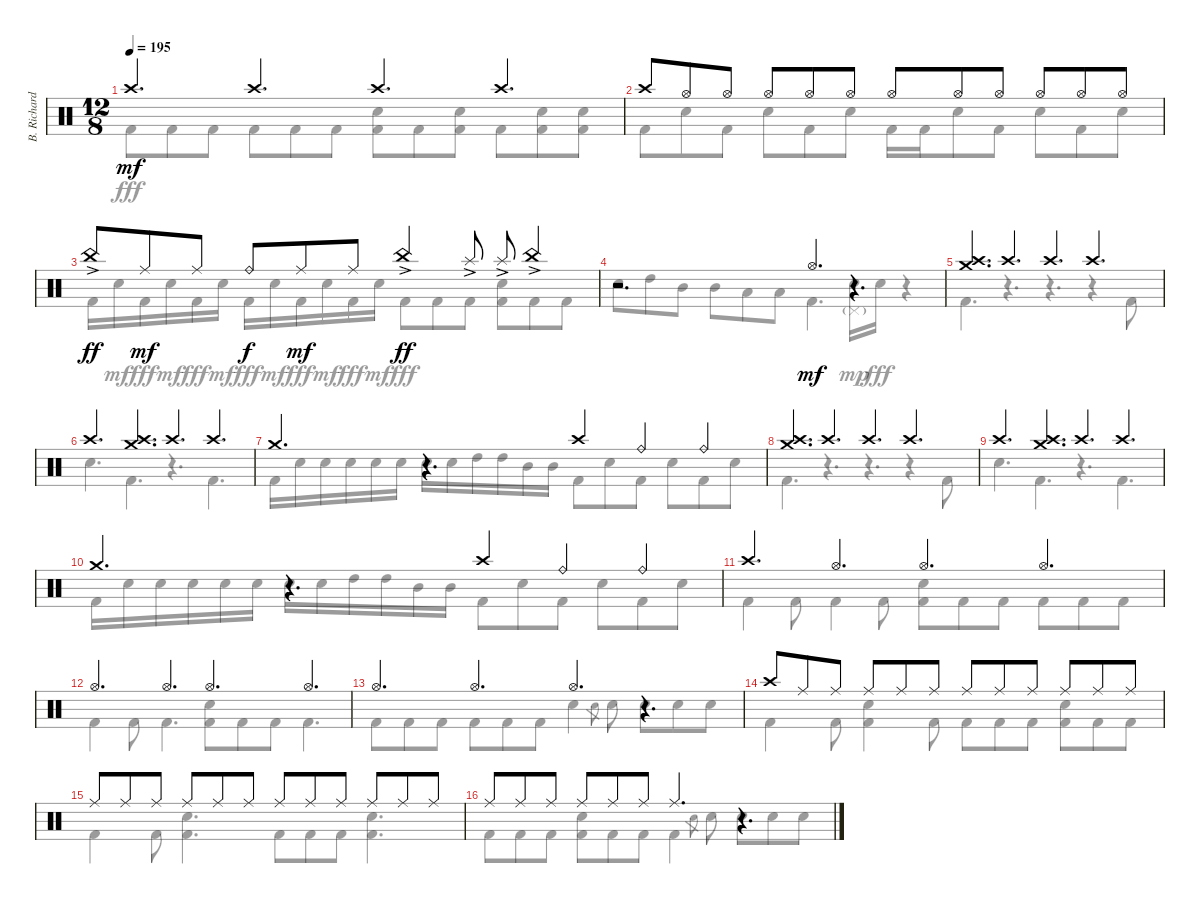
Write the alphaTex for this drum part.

\track ("B. Richardson Drums" "B. Richard") {instrument percussion}
\staff {score}
\articulation defaults
\voice
\ts (12 8)
\tempo 195
\clef neutral
\ks c "Crash high (hit)".4{d dy mf} "Crash high (hit)".4{d} "Crash high (hit)".4{d} "Crash high (hit)".4{d}
|
"Crash high (hit)".8 "Hi-Hat (open)".8 "Hi-Hat (open)".8 "Hi-Hat (open)".8 "Hi-Hat (open)".8 "Hi-Hat (open)".8 "Hi-Hat (open)".8 "Hi-Hat (open)".8 "Hi-Hat (open)".8 "Hi-Hat (open)".8 "Hi-Hat (open)".8 "Hi-Hat (open)".8 |
"China (hit)"{ac}.8{dy ff} "Ride (middle)".8{dy mf} "Ride (middle)".8 "Ride (bell)".8{dy f} "Ride (middle)".8{dy mf} "Ride (middle)".8 "China (hit)"{ac}.4{dy ff} "Splash (hit)"{ac}.8 "Splash (hit)"{ac}.8 "China (hit)"{ac}.4 |
r.2{d} "Hi-Hat (open)".4{d dy mf} r.4{d} |
("Crash high (hit)" "Crash medium (hit)").4{d} "Crash high (hit)".4{d} "Crash high (hit)".4{d} "Crash high (hit)".4{d} |
"Crash high (hit)".4{d} ("Crash high (hit)" "Crash medium (hit)").4{d} "Crash high (hit)".4{d} "Crash high (hit)".4{d} |
"Crash medium (hit)".4{d} r.4{d} "Crash high (hit)".4 "Ride (bell)".4 "Ride (bell)".4 |
("Crash high (hit)" "Crash medium (hit)").4{d} "Crash high (hit)".4{d} "Crash high (hit)".4{d} "Crash high (hit)".4{d} |
"Crash high (hit)".4{d} ("Crash high (hit)" "Crash medium (hit)").4{d} "Crash high (hit)".4{d} "Crash high (hit)".4{d} |
"Crash medium (hit)".4{d} r.4{d} "Crash high (hit)".4 "Ride (bell)".4 "Ride (bell)".4 |
"Crash high (hit)".4{d} "Hi-Hat (open)".4{d} "Hi-Hat (open)".4{d} "Hi-Hat (open)".4{d} |
"Hi-Hat (open)".4{d} "Hi-Hat (open)".4{d} "Hi-Hat (open)".4{d} "Hi-Hat (open)".4{d} |
"Hi-Hat (open)".4{d} "Hi-Hat (open)".4{d} "Hi-Hat (open)".4{d} r.4{d} |
"Crash high (hit)".8 "Ride (middle)".8 "Ride (middle)".8 "Ride (middle)".8 "Ride (middle)".8 "Ride (middle)".8 "Ride (middle)".8 "Ride (middle)".8 "Ride (middle)".8 "Ride (middle)".8 "Ride (middle)".8 "Ride (middle)".8 |
"Ride (middle)".8 "Ride (middle)".8 "Ride (middle)".8 "Ride (middle)".8 "Ride (middle)".8 "Ride (middle)".8 "Ride (middle)".8 "Ride (middle)".8 "Ride (middle)".8 "Ride (middle)".8 "Ride (middle)".8 "Ride (middle)".8 |
"Ride (middle)".8 "Ride (middle)".8 "Ride (middle)".8 "Ride (middle)".8 "Ride (middle)".8 "Ride (middle)".8 "Ride (middle)".4{d} r.4{d}
\voice
\clef neutral
\ottava regular
\simile none
\ks c "Kick (hit) 2".8{dy fff} "Kick (hit) 2".8 "Kick (hit) 2".8 "Kick (hit) 2".8 "Kick (hit) 2".8 "Kick (hit) 2".8
("Electric Snare (hit)" "Kick (hit) 2").8 "Kick (hit) 2".8 ("Electric Snare (hit)" "Kick (hit) 2").8 "Kick (hit) 2".8 ("Electric Snare (hit)" "Kick (hit) 2").8 ("Electric Snare (hit)" "Kick (hit) 2").8 |
"Kick (hit) 2".8 "Electric Snare (hit)".8 "Kick (hit) 2".8 "Electric Snare (hit)".8 "Kick (hit) 2".8 "Electric Snare (hit)".8 "Kick (hit) 2".16 "Kick (hit) 2".16 "Electric Snare (hit)".8 "Kick (hit) 2".8 "Electric Snare (hit)".8 "Kick (hit) 2".8 "Electric Snare (hit)".8 |
"Kick (hit) 2".16 "Electric Snare (hit)".16{dy mf} "Kick (hit) 2".16{dy fff} "Electric Snare (hit)".16{dy mf} "Kick (hit) 2".16{dy fff} "Electric Snare (hit)".16{dy mf} "Kick (hit) 2".16{dy fff} "Electric Snare (hit)".16{dy mf} "Kick (hit) 2".16{dy fff} "Electric Snare (hit)".16{dy mf} "Kick (hit) 2".16{dy fff} "Electric Snare (hit)".16{dy mf} "Kick (hit) 2".8{dy fff} "Kick (hit) 2".8 "Kick (hit) 2".8 ("Electric Snare (hit)" "Kick (hit) 2").8 "Kick (hit) 2".8 "Kick (hit) 2".8 |
"Electric Snare (hit)".8 "High Tom (hit)".8 "Mid Tom (hit)".8 "Mid Tom (hit)".8 "Low Tom (hit)".8 "Low Tom (hit)".8 "Kick (hit) 2".4{d} ("Electric Snare (hit)" "Pedal Hi-Hat (hit)"{g}).16{dy mp} "Electric Snare (hit)".16{dy fff} r.4 |
"Kick (hit) 2".4{d} r.4{d} r.4{d} r.4 "Kick (hit) 2".8 |
"Electric Snare (hit)".4{d} "Kick (hit) 2".4{d} r.4{d} "Kick (hit) 2".4{d} |
"Kick (hit) 2".16 "Electric Snare (hit)".16 "Electric Snare (hit)".16 "Electric Snare (hit)".16 "Electric Snare (hit)".16 "Electric Snare (hit)".16 "Electric Snare (hit)".16 "Electric Snare (hit)".16 "High Tom (hit)".16 "High Tom (hit)".16 "Mid Tom (hit)".16 "Mid Tom (hit)".16 "Kick (hit) 2".8 "Electric Snare (hit)".8 "Kick (hit) 2".8 "Electric Snare (hit)".8 "Kick (hit) 2".8 "Electric Snare (hit)".8 |
"Kick (hit) 2".4{d} r.4{d} r.4{d} r.4 "Kick (hit) 2".8 |
"Electric Snare (hit)".4{d} "Kick (hit) 2".4{d} r.4{d} "Kick (hit) 2".4{d} |
"Kick (hit) 2".16 "Electric Snare (hit)".16 "Electric Snare (hit)".16 "Electric Snare (hit)".16 "Electric Snare (hit)".16 "Electric Snare (hit)".16 "Electric Snare (hit)".16 "Electric Snare (hit)".16 "High Tom (hit)".16 "High Tom (hit)".16 "Mid Tom (hit)".16 "Mid Tom (hit)".16 "Kick (hit) 2".8 "Electric Snare (hit)".8 "Kick (hit) 2".8 "Electric Snare (hit)".8 "Kick (hit) 2".8 "Electric Snare (hit)".8 |
"Kick (hit) 2".4 "Kick (hit) 2".8 "Kick (hit) 2".4 "Kick (hit) 2".8 ("Electric Snare (hit)" "Kick (hit) 2").8 "Kick (hit) 2".8 "Kick (hit) 2".8 "Kick (hit) 2".8 "Kick (hit) 2".8 "Kick (hit) 2".8 |
"Kick (hit) 2".4 "Kick (hit) 2".8 "Kick (hit) 2".4{d} ("Electric Snare (hit)" "Kick (hit) 2").8 "Kick (hit) 2".8 "Kick (hit) 2".8 "Kick (hit) 2".4{d} |
"Kick (hit) 2".8 "Kick (hit) 2".8 "Kick (hit) 2".8 "Kick (hit) 2".8 "Kick (hit) 2".8 "Kick (hit) 2".8 "Electric Snare (hit)".4 "Electric Snare (hit)".8{gr} "Electric Snare (hit)".8 "Electric Snare (hit)".8 "Electric Snare (hit)".8 "Electric Snare (hit)".8 |
"Kick (hit) 2".4 "Kick (hit) 2".8 ("Electric Snare (hit)" "Kick (hit) 2").4 "Kick (hit) 2".8 "Kick (hit) 2".8 "Kick (hit) 2".8 "Kick (hit) 2".8 ("Electric Snare (hit)" "Kick (hit) 2").8 "Kick (hit) 2".8 "Kick (hit) 2".8 |
"Kick (hit) 2".4 "Kick (hit) 2".8 ("Electric Snare (hit)" "Kick (hit) 2").4{d} "Kick (hit) 2".8 "Kick (hit) 2".8 "Kick (hit) 2".8 ("Electric Snare (hit)" "Kick (hit) 2").4{d} |
"Kick (hit) 2".8 "Kick (hit) 2".8 "Kick (hit) 2".8 ("Electric Snare (hit)" "Kick (hit) 2").8 "Kick (hit) 2".8 "Kick (hit) 2".8 "Kick (hit) 2".4 "Electric Snare (hit)".8{gr} "Electric Snare (hit)".8 "Electric Snare (hit)".8 "Electric Snare (hit)".8 "Electric Snare (hit)".8
